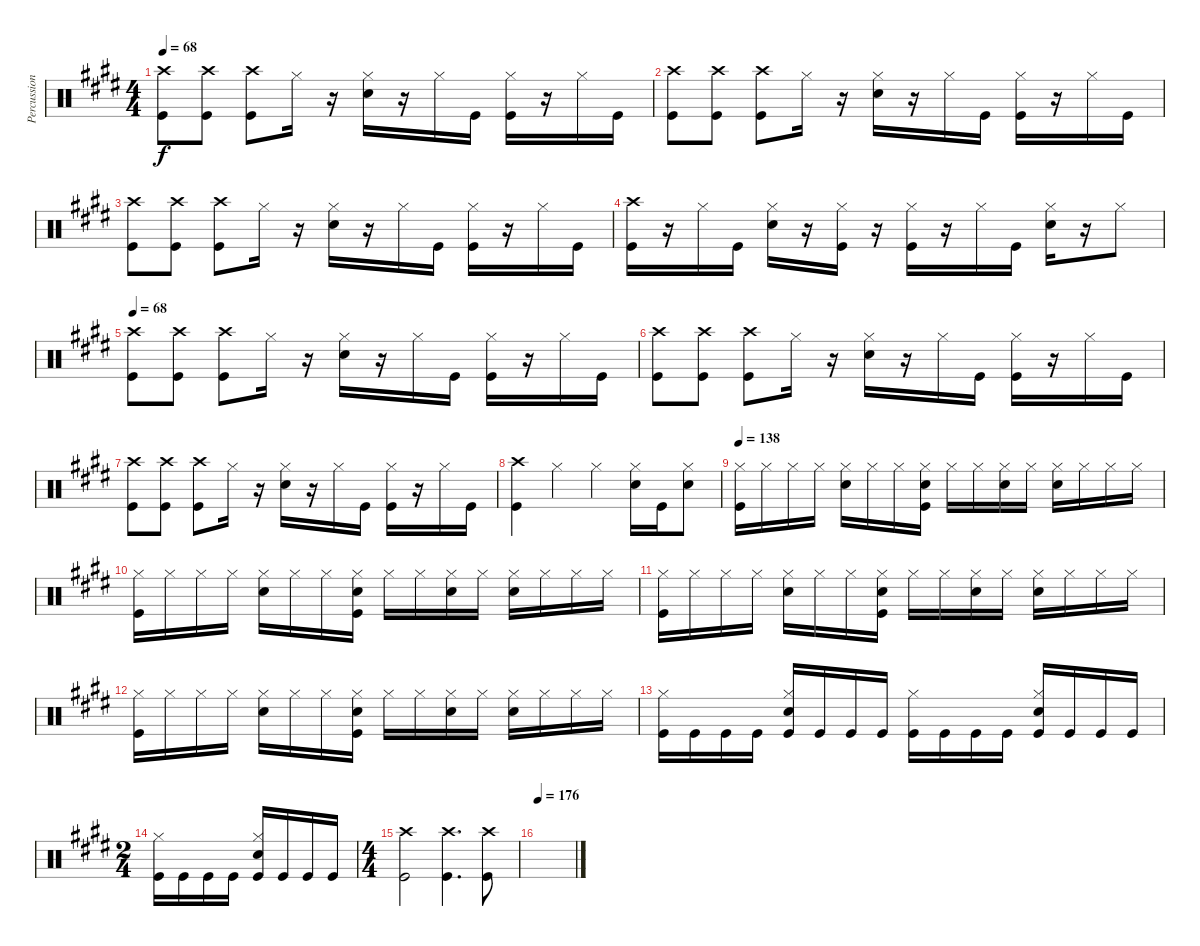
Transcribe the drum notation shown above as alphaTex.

\track ("Percussion" "Percussion") {instrument percussion}
\staff {score}
\articulation defaults
\ts (4 4)
\tempo 68
\clef neutral
\ks c#minor
("Crash high (hit)" "Kick (hit)").8{dy f} ("Crash high (hit)" "Kick (hit)").8 ("Crash high (hit)" "Kick (hit)").8 "Hi-Hat (closed)".16 r.16 ("Hi-Hat (closed)" "Snare (hit) 2").16 r.16 "Hi-Hat (closed)".16 "Kick (hit)".16 ("Hi-Hat (closed)" "Kick (hit)").16 r.16 "Hi-Hat (closed)".16 "Kick (hit)".16 |
("Crash high (hit)" "Kick (hit)").8 ("Crash high (hit)" "Kick (hit)").8 ("Crash high (hit)" "Kick (hit)").8 "Hi-Hat (closed)".16 r.16 ("Hi-Hat (closed)" "Snare (hit) 2").16 r.16 "Hi-Hat (closed)".16 "Kick (hit)".16 ("Hi-Hat (closed)" "Kick (hit)").16 r.16 "Hi-Hat (closed)".16 "Kick (hit)".16 |
("Crash high (hit)" "Kick (hit)").8 ("Crash high (hit)" "Kick (hit)").8 ("Crash high (hit)" "Kick (hit)").8 "Hi-Hat (closed)".16 r.16 ("Hi-Hat (closed)" "Snare (hit) 2").16 r.16 "Hi-Hat (closed)".16 "Kick (hit)".16 ("Hi-Hat (closed)" "Kick (hit)").16 r.16 "Hi-Hat (closed)".16 "Kick (hit)".16 |
("Crash high (hit)" "Kick (hit)").16 r.16 "Hi-Hat (closed)".16 "Kick (hit)".16 ("Hi-Hat (closed)" "Snare (hit) 2").16 r.16 ("Hi-Hat (closed)" "Kick (hit)").16 r.16 ("Hi-Hat (closed)" "Kick (hit)").16 r.16 "Hi-Hat (closed)".16 "Kick (hit)".16 ("Hi-Hat (closed)" "Snare (hit) 2").16 r.16 "Hi-Hat (closed)".8 |
\tempo 68
("Crash high (hit)" "Kick (hit)").8 ("Crash high (hit)" "Kick (hit)").8 ("Crash high (hit)" "Kick (hit)").8 "Hi-Hat (closed)".16 r.16 ("Hi-Hat (closed)" "Snare (hit) 2").16 r.16 "Hi-Hat (closed)".16 "Kick (hit)".16 ("Hi-Hat (closed)" "Kick (hit)").16 r.16 "Hi-Hat (closed)".16 "Kick (hit)".16 |
("Crash high (hit)" "Kick (hit)").8 ("Crash high (hit)" "Kick (hit)").8 ("Crash high (hit)" "Kick (hit)").8 "Hi-Hat (closed)".16 r.16 ("Hi-Hat (closed)" "Snare (hit) 2").16 r.16 "Hi-Hat (closed)".16 "Kick (hit)".16 ("Hi-Hat (closed)" "Kick (hit)").16 r.16 "Hi-Hat (closed)".16 "Kick (hit)".16 |
("Crash high (hit)" "Kick (hit)").8 ("Crash high (hit)" "Kick (hit)").8 ("Crash high (hit)" "Kick (hit)").8 "Hi-Hat (closed)".16 r.16 ("Hi-Hat (closed)" "Snare (hit) 2").16 r.16 "Hi-Hat (closed)".16 "Kick (hit)".16 ("Hi-Hat (closed)" "Kick (hit)").16 r.16 "Hi-Hat (closed)".16 "Kick (hit)".16 |
("Crash high (hit)" "Kick (hit)").4 "Hi-Hat (closed)".4 "Hi-Hat (closed)".4 ("Hi-Hat (closed)" "Snare (hit) 2").16 "Kick (hit)".16 ("Hi-Hat (closed)" "Snare (hit) 2").8 |
\tempo 138
("Hi-Hat (closed)" "Kick (hit)").16 "Hi-Hat (closed)".16 "Hi-Hat (closed)".16 "Hi-Hat (closed)".16 ("Hi-Hat (closed)" "Snare (hit) 2").16 "Hi-Hat (closed)".16 "Hi-Hat (closed)".16 ("Hi-Hat (closed)" "Snare (hit) 2" "Kick (hit)").16 "Hi-Hat (closed)".16 "Hi-Hat (closed)".16 ("Hi-Hat (closed)" "Snare (hit) 2").16 "Hi-Hat (closed)".16 ("Hi-Hat (closed)" "Snare (hit) 2").16 "Hi-Hat (closed)".16 "Hi-Hat (closed)".16 "Hi-Hat (closed)".16 |
("Hi-Hat (closed)" "Kick (hit)").16 "Hi-Hat (closed)".16 "Hi-Hat (closed)".16 "Hi-Hat (closed)".16 ("Hi-Hat (closed)" "Snare (hit) 2").16 "Hi-Hat (closed)".16 "Hi-Hat (closed)".16 ("Hi-Hat (closed)" "Snare (hit) 2" "Kick (hit)").16 "Hi-Hat (closed)".16 "Hi-Hat (closed)".16 ("Hi-Hat (closed)" "Snare (hit) 2").16 "Hi-Hat (closed)".16 ("Hi-Hat (closed)" "Snare (hit) 2").16 "Hi-Hat (closed)".16 "Hi-Hat (closed)".16 "Hi-Hat (closed)".16 |
("Hi-Hat (closed)" "Kick (hit)").16 "Hi-Hat (closed)".16 "Hi-Hat (closed)".16 "Hi-Hat (closed)".16 ("Hi-Hat (closed)" "Snare (hit) 2").16 "Hi-Hat (closed)".16 "Hi-Hat (closed)".16 ("Hi-Hat (closed)" "Snare (hit) 2" "Kick (hit)").16 "Hi-Hat (closed)".16 "Hi-Hat (closed)".16 ("Hi-Hat (closed)" "Snare (hit) 2").16 "Hi-Hat (closed)".16 ("Hi-Hat (closed)" "Snare (hit) 2").16 "Hi-Hat (closed)".16 "Hi-Hat (closed)".16 "Hi-Hat (closed)".16 |
("Hi-Hat (closed)" "Kick (hit)").16 "Hi-Hat (closed)".16 "Hi-Hat (closed)".16 "Hi-Hat (closed)".16 ("Hi-Hat (closed)" "Snare (hit) 2").16 "Hi-Hat (closed)".16 "Hi-Hat (closed)".16 ("Hi-Hat (closed)" "Snare (hit) 2" "Kick (hit)").16 "Hi-Hat (closed)".16 "Hi-Hat (closed)".16 ("Hi-Hat (closed)" "Snare (hit) 2").16 "Hi-Hat (closed)".16 ("Hi-Hat (closed)" "Snare (hit) 2").16 "Hi-Hat (closed)".16 "Hi-Hat (closed)".16 "Hi-Hat (closed)".16 |
("Hi-Hat (closed)" "Kick (hit)").16 "Kick (hit)".16 "Kick (hit)".16 "Kick (hit)".16 ("Hi-Hat (closed)" "Snare (hit) 2" "Kick (hit)").16 "Kick (hit)".16 "Kick (hit)".16 "Kick (hit)".16 ("Hi-Hat (closed)" "Kick (hit)").16 "Kick (hit)".16 "Kick (hit)".16 "Kick (hit)".16 ("Hi-Hat (closed)" "Snare (hit) 2" "Kick (hit)").16 "Kick (hit)".16 "Kick (hit)".16 "Kick (hit)".16 |
\ts (2 4)
("Hi-Hat (closed)" "Kick (hit)").16 "Kick (hit)".16 "Kick (hit)".16 "Kick (hit)".16 ("Hi-Hat (closed)" "Snare (hit) 2" "Kick (hit)").16 "Kick (hit)".16 "Kick (hit)".16 "Kick (hit)".16 |
\ts (4 4)
("Crash high (hit)" "Kick (hit)").2 ("Crash high (hit)" "Kick (hit)").4{d} ("Crash high (hit)" "Kick (hit)").8 |
\tempo 176
